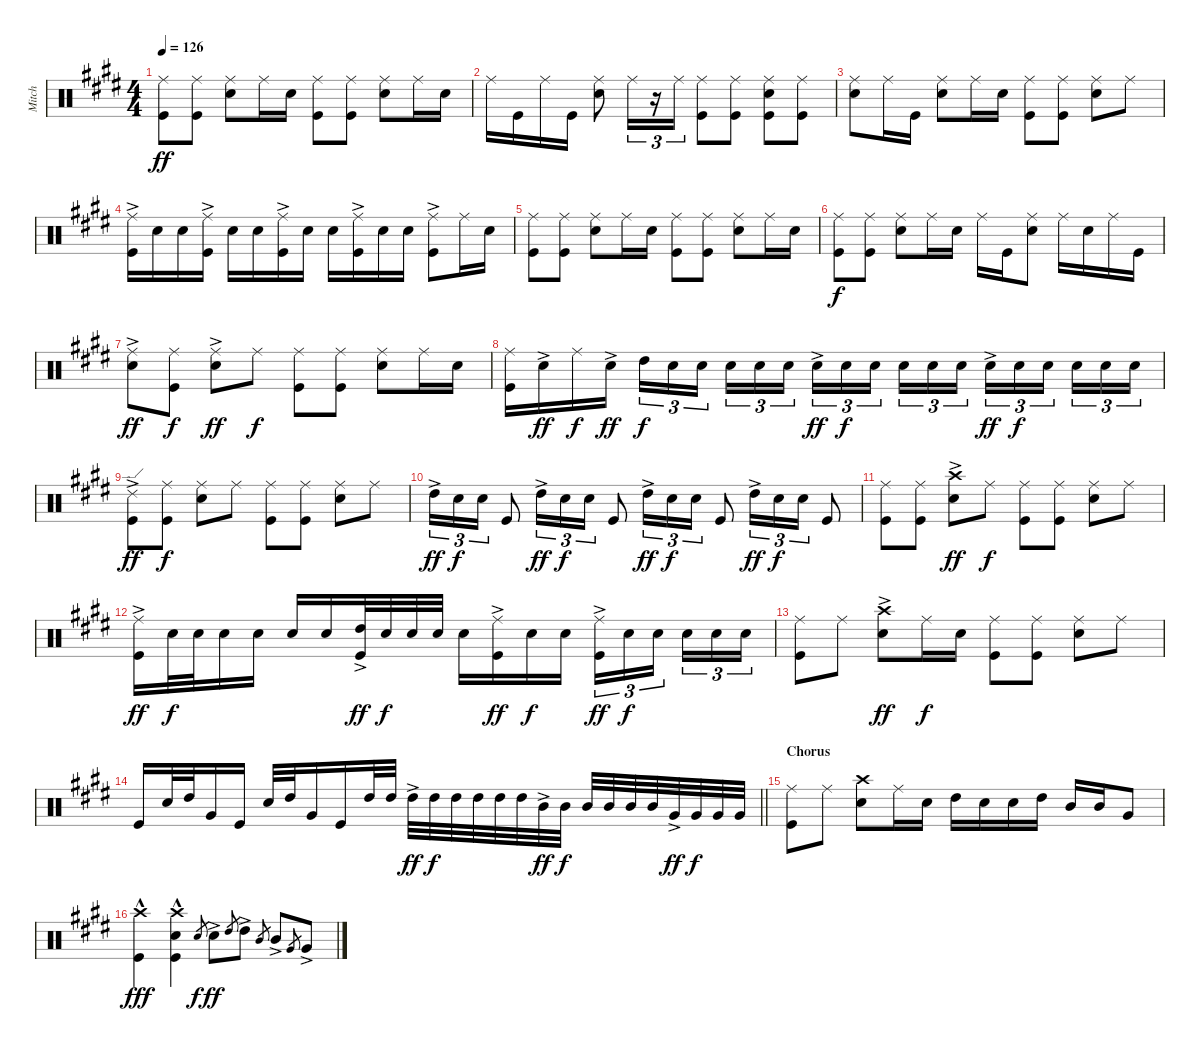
\track ("Mitch" "Mitch") {instrument percussion}
\staff {score}
\articulation defaults
\ts (4 4)
\tempo 126
\clef neutral
\ks e
("Ride (middle)" "Kick (hit)").8{dy ff} ("Ride (middle)" "Kick (hit)").8 ("Ride (middle)" "Snare (hit) 2").8 "Ride (middle)".16 "Snare (hit) 2".16 ("Ride (middle)" "Kick (hit)").8 ("Ride (middle)" "Kick (hit)").8 ("Ride (middle)" "Snare (hit) 2").8 "Ride (middle)".16 "Snare (hit) 2".16 |
"Ride (middle)".16 "Kick (hit)".16 "Ride (middle)".16 "Kick (hit)".16 ("Ride (middle)" "Snare (hit) 2").8 "Ride (middle)".16{tu (3 2)} r.16{tu (3 2)} "Ride (middle)".16{tu (3 2)} ("Ride (middle)" "Kick (hit)").8 ("Ride (middle)" "Kick (hit)").8 ("Ride (middle)" "Snare (hit) 2" "Kick (hit)").8 ("Ride (middle)" "Kick (hit)").8 |
("Ride (middle)" "Snare (hit) 2").8 "Ride (middle)".16 "Kick (hit)".16 ("Ride (middle)" "Snare (hit) 2").8 "Ride (middle)".16 "Snare (hit) 2".16 ("Ride (middle)" "Kick (hit)").8 ("Ride (middle)" "Kick (hit)").8 ("Ride (middle)" "Snare (hit) 2").8 "Ride (middle)".8 |
("Ride (middle)"{ac} "Kick (hit)").16 "Snare (hit) 2".16 "Snare (hit) 2".16 ("Ride (middle)"{ac} "Kick (hit)").16 "Snare (hit) 2".16 "Snare (hit) 2".16 ("Ride (middle)"{ac} "Kick (hit)").16 "Snare (hit) 2".16 "Snare (hit) 2".16 ("Ride (middle)"{ac} "Kick (hit)").16 "Snare (hit) 2".16 "Snare (hit) 2".16 ("Ride (middle)"{ac} "Kick (hit)").8 "Ride (middle)".16 "Snare (hit) 2".16 |
("Ride (middle)" "Kick (hit)").8 ("Ride (middle)" "Kick (hit)").8 ("Ride (middle)" "Snare (hit) 2").8 "Ride (middle)".16 "Snare (hit) 2".16 ("Ride (middle)" "Kick (hit)").8 ("Ride (middle)" "Kick (hit)").8 ("Ride (middle)" "Snare (hit) 2").8 "Ride (middle)".16 "Snare (hit) 2".16 |
("Ride (middle)" "Kick (hit)").8{dy f} ("Ride (middle)" "Kick (hit)").8 ("Ride (middle)" "Snare (hit) 2").8 "Ride (middle)".16 "Snare (hit) 2".16 "Ride (middle)".16 "Kick (hit)".16 ("Ride (middle)" "Snare (hit) 2").8 "Ride (middle)".16 "Snare (hit) 2".16 "Ride (middle)".16 "Kick (hit)".16 |
("Ride (middle)"{ac} "Snare (hit) 2").8{dy ff} ("Ride (middle)" "Kick (hit)").8{dy f} ("Ride (middle)"{ac} "Snare (hit) 2").8{dy ff} "Ride (middle)".8{dy f} ("Ride (middle)" "Kick (hit)").8 ("Ride (middle)" "Kick (hit)").8 ("Ride (middle)" "Snare (hit) 2").8 "Ride (middle)".16 "Snare (hit) 2".16 |
("Ride (middle)" "Kick (hit)").16 "Snare (hit) 2"{ac}.16{dy ff} "Ride (middle)".16{dy f} "Snare (hit) 2"{ac}.16{dy ff} "High Tom (hit)".16{tu (3 2) dy f} "Snare (hit) 2".16{tu (3 2)} "Snare (hit) 2".16{tu (3 2) beam splitsecondary} "Snare (hit) 2".16{tu (3 2)} "Snare (hit) 2".16{tu (3 2)} "Snare (hit) 2".16{tu (3 2)} "Snare (hit) 2"{ac}.16{tu (3 2) dy ff} "Snare (hit) 2".16{tu (3 2) dy f} "Snare (hit) 2".16{tu (3 2) beam splitsecondary} "Snare (hit) 2".16{tu (3 2)} "Snare (hit) 2".16{tu (3 2)} "Snare (hit) 2".16{tu (3 2)} "Snare (hit) 2"{ac}.16{tu (3 2) dy ff} "Snare (hit) 2".16{tu (3 2) dy f} "Snare (hit) 2".16{tu (3 2) beam splitsecondary} "Snare (hit) 2".16{tu (3 2)} "Snare (hit) 2".16{tu (3 2)} "Snare (hit) 2".16{tu (3 2)} |
("Ride (edge) 2"{ac} "Kick (hit)").8{dy ff} ("Ride (middle)" "Kick (hit)").8{dy f} ("Ride (middle)" "Snare (hit) 2").8 "Ride (middle)".8 ("Ride (middle)" "Kick (hit)").8 ("Ride (middle)" "Kick (hit)").8 ("Ride (middle)" "Snare (hit) 2").8 "Ride (middle)".8 |
"High Tom (hit)"{ac}.16{tu (3 2) dy ff} "Snare (hit) 2".16{tu (3 2) dy f} "Snare (hit) 2".16{tu (3 2)} "Kick (hit)".8 "High Tom (hit)"{ac}.16{tu (3 2) dy ff} "Snare (hit) 2".16{tu (3 2) dy f} "Snare (hit) 2".16{tu (3 2)} "Kick (hit)".8 "High Tom (hit)"{ac}.16{tu (3 2) dy ff} "Snare (hit) 2".16{tu (3 2) dy f} "Snare (hit) 2".16{tu (3 2)} "Kick (hit)".8 "High Tom (hit)"{ac}.16{tu (3 2) dy ff} "Snare (hit) 2".16{tu (3 2) dy f} "Snare (hit) 2".16{tu (3 2)} "Kick (hit)".8 |
("Ride (middle)" "Kick (hit)").8 ("Ride (middle)" "Kick (hit)").8 ("Crash high (hit)"{ac} "Snare (hit) 2").8{dy ff} "Ride (middle)".8{dy f} ("Ride (middle)" "Kick (hit)").8 ("Ride (middle)" "Kick (hit)").8 ("Ride (middle)" "Snare (hit) 2").8 "Ride (middle)".8 |
("Ride (middle)"{ac} "Kick (hit)").16{dy ff} "Snare (hit) 2".32{dy f} "Snare (hit) 2".32 "Snare (hit) 2".16 "Snare (hit) 2".16 "Snare (hit) 2".16 "Snare (hit) 2".16 ("High Tom (hit)"{ac} "Kick (hit)").32{dy ff} "Snare (hit) 2".32{dy f} "Snare (hit) 2".32 "Snare (hit) 2".32 "Snare (hit) 2".16 ("Ride (middle)"{ac} "Kick (hit)").16{dy ff} "Snare (hit) 2".16{dy f} "Snare (hit) 2".16 ("Ride (middle)"{ac} "Kick (hit)").16{tu (3 2) dy ff} "Snare (hit) 2".16{tu (3 2) dy f} "Snare (hit) 2".16{tu (3 2) beam splitsecondary} "Snare (hit) 2".16{tu (3 2)} "Snare (hit) 2".16{tu (3 2)} "Snare (hit) 2".16{tu (3 2)} |
("Ride (middle)" "Kick (hit)").8 "Ride (middle)".8 ("Crash high (hit)"{ac} "Snare (hit) 2").8{dy ff} "Ride (middle)".16{dy f} "Snare (hit) 2".16 ("Ride (middle)" "Kick (hit)").8 ("Ride (middle)" "Kick (hit)").8 ("Ride (middle)" "Snare (hit) 2").8 "Ride (middle)".8 |
\barLineRight lightlight "Kick (hit)".16 "Snare (hit) 2".32 "High Tom (hit)".32 "Very Low Tom (hit)".16 "Kick (hit)".16 "Snare (hit) 2".32 "High Tom (hit)".32 "Very Low Tom (hit)".16 "Kick (hit)".16 "High Tom (hit)".32 "High Tom (hit)".32 "High Tom (hit)"{ac}.32{dy ff} "High Tom (hit)".32{dy f} "High Tom (hit)".32 "High Tom (hit)".32 "High Tom (hit)".32 "High Tom (hit)".32 "Mid Tom (hit)"{ac}.32{dy ff} "Mid Tom (hit)".32{dy f} "Mid Tom (hit)".32 "Mid Tom (hit)".32 "Mid Tom (hit)".32 "Mid Tom (hit)".32 "Very Low Tom (hit)"{ac}.32{dy ff} "Very Low Tom (hit)".32{dy f} "Very Low Tom (hit)".32 "Very Low Tom (hit)".32
|
\section ("" "Chorus")
("Ride (middle)" "Kick (hit)").8 "Ride (middle)".8 ("Crash high (hit)" "Snare (hit) 2").8 "Ride (middle)".16 "Snare (hit) 2".16 "High Tom (hit)".16 "Snare (hit) 2".16 "Snare (hit) 2".16 "High Tom (hit)".16 "Mid Tom (hit)".16 "Mid Tom (hit)".16 "Very Low Tom (hit)".8 |
("Crash high (hit)"{hac} "Kick (hit)").4{dy fff} ("Crash high (hit)"{hac} "Snare (hit) 2" "Kick (hit)").4 "Snare (hit) 2".8{gr dy f} "Snare (hit) 2"{ac}.8{dy ff} "High Tom (hit)".8{gr} "High Tom (hit)"{ac}.8 "Mid Tom (hit)".8{gr} "Mid Tom (hit)"{ac}.8 "Very Low Tom (hit)".8{gr} "Very Low Tom (hit)"{ac}.8
